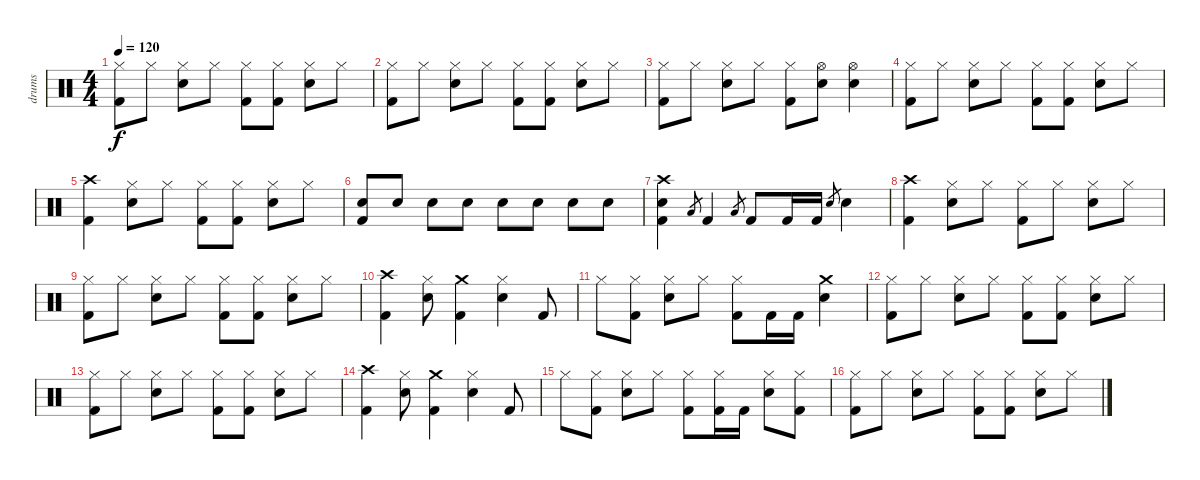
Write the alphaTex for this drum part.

\track ("drums" "drums") {instrument percussion}
\staff {score}
\articulation defaults
\ts (4 4)
\tempo 120
\clef neutral
\ks c
("Hi-Hat (closed)" "Kick (hit) 2").8{dy f} "Hi-Hat (closed)".8 ("Hi-Hat (closed)" "Electric Snare (hit)").8 "Hi-Hat (closed)".8 ("Hi-Hat (closed)" "Kick (hit) 2").8 ("Hi-Hat (closed)" "Kick (hit) 2").8 ("Hi-Hat (closed)" "Electric Snare (hit)").8 "Hi-Hat (closed)".8 |
("Hi-Hat (closed)" "Kick (hit) 2").8 "Hi-Hat (closed)".8 ("Hi-Hat (closed)" "Electric Snare (hit)").8 "Hi-Hat (closed)".8 ("Hi-Hat (closed)" "Kick (hit) 2").8 ("Hi-Hat (closed)" "Kick (hit) 2").8 ("Hi-Hat (closed)" "Electric Snare (hit)").8 "Hi-Hat (closed)".8 |
("Hi-Hat (closed)" "Kick (hit) 2").8 "Hi-Hat (closed)".8 ("Hi-Hat (closed)" "Electric Snare (hit)").8 "Hi-Hat (closed)".8 ("Hi-Hat (closed)" "Kick (hit) 2").8 ("Hi-Hat (open)" "Electric Snare (hit)").8 ("Hi-Hat (open)" "Electric Snare (hit)").4 |
("Hi-Hat (closed)" "Kick (hit) 2").8 "Hi-Hat (closed)".8 ("Hi-Hat (closed)" "Electric Snare (hit)").8 "Hi-Hat (closed)".8 ("Hi-Hat (closed)" "Kick (hit) 2").8 ("Hi-Hat (closed)" "Kick (hit) 2").8 ("Hi-Hat (closed)" "Electric Snare (hit)").8 "Hi-Hat (closed)".8 |
("Crash high (hit)" "Kick (hit) 2").4 ("Hi-Hat (closed)" "Electric Snare (hit)").8 "Hi-Hat (closed)".8 ("Hi-Hat (closed)" "Kick (hit) 2").8 ("Hi-Hat (closed)" "Kick (hit) 2").8 ("Hi-Hat (closed)" "Electric Snare (hit)").8 "Hi-Hat (closed)".8 |
("Electric Snare (hit)" "Kick (hit) 2").8 "Electric Snare (hit)".8 "Electric Snare (hit)".8 "Electric Snare (hit)".8 "Electric Snare (hit)".8 "Electric Snare (hit)".8 "Electric Snare (hit)".8 "Electric Snare (hit)".8 |
("Crash high (hit)" "Electric Snare (hit)" "Kick (hit) 2").4 "Low Floor Tom (hit)".8{gr} "Kick (hit) 2".4 "Low Floor Tom (hit)".8{gr} "Kick (hit) 2".8 "Kick (hit) 2".16 "Kick (hit) 2".16 "Electric Snare (hit)".8{gr} "Electric Snare (hit)".4 |
("Crash high (hit)" "Kick (hit) 2").4 ("Hi-Hat (closed)" "Electric Snare (hit)").8 "Hi-Hat (closed)".8 ("Hi-Hat (closed)" "Kick (hit) 2").8 "Hi-Hat (closed)".8 ("Hi-Hat (closed)" "Electric Snare (hit)").8 "Hi-Hat (closed)".8 |
("Hi-Hat (closed)" "Kick (hit) 2").8 "Hi-Hat (closed)".8 ("Hi-Hat (closed)" "Electric Snare (hit)").8 "Hi-Hat (closed)".8 ("Hi-Hat (closed)" "Kick (hit) 2").8 ("Hi-Hat (closed)" "Kick (hit) 2").8 ("Hi-Hat (closed)" "Electric Snare (hit)").8 "Hi-Hat (closed)".8 |
("Crash high (hit)" "Kick (hit) 2").4 ("Hi-Hat (closed)" "Electric Snare (hit)").8 ("Crash medium (hit)" "Kick (hit) 2").4 ("Hi-Hat (closed)" "Electric Snare (hit)").4 "Kick (hit) 2".8 |
"Hi-Hat (closed)".8 ("Hi-Hat (closed)" "Kick (hit) 2").8 ("Hi-Hat (closed)" "Electric Snare (hit)").8 "Hi-Hat (closed)".8 ("Hi-Hat (closed)" "Kick (hit) 2").8 "Kick (hit) 2".16 "Kick (hit) 2".16 ("Crash medium (hit)" "Electric Snare (hit)").4 |
("Hi-Hat (closed)" "Kick (hit) 2").8 "Hi-Hat (closed)".8 ("Hi-Hat (closed)" "Electric Snare (hit)").8 "Hi-Hat (closed)".8 ("Hi-Hat (closed)" "Kick (hit) 2").8 ("Hi-Hat (closed)" "Kick (hit) 2").8 ("Hi-Hat (closed)" "Electric Snare (hit)").8 "Hi-Hat (closed)".8 |
("Hi-Hat (closed)" "Kick (hit) 2").8 "Hi-Hat (closed)".8 ("Hi-Hat (closed)" "Electric Snare (hit)").8 "Hi-Hat (closed)".8 ("Hi-Hat (closed)" "Kick (hit) 2").8 ("Hi-Hat (closed)" "Kick (hit) 2").8 ("Hi-Hat (closed)" "Electric Snare (hit)").8 "Hi-Hat (closed)".8 |
("Crash high (hit)" "Kick (hit) 2").4 ("Hi-Hat (closed)" "Electric Snare (hit)").8 ("Crash medium (hit)" "Kick (hit) 2").4 ("Hi-Hat (closed)" "Electric Snare (hit)").4 "Kick (hit) 2".8 |
"Hi-Hat (closed)".8 ("Hi-Hat (closed)" "Kick (hit) 2").8 ("Hi-Hat (closed)" "Electric Snare (hit)").8 "Hi-Hat (closed)".8 ("Hi-Hat (closed)" "Kick (hit) 2").8 ("Hi-Hat (closed)" "Kick (hit) 2").16 "Kick (hit) 2".16 ("Hi-Hat (closed)" "Electric Snare (hit)").8 ("Hi-Hat (closed)" "Kick (hit) 2").8 |
("Hi-Hat (closed)" "Kick (hit) 2").8 "Hi-Hat (closed)".8 ("Hi-Hat (closed)" "Electric Snare (hit)").8 "Hi-Hat (closed)".8 ("Hi-Hat (closed)" "Kick (hit) 2").8 ("Hi-Hat (closed)" "Kick (hit) 2").8 ("Hi-Hat (closed)" "Electric Snare (hit)").8 "Hi-Hat (closed)".8
